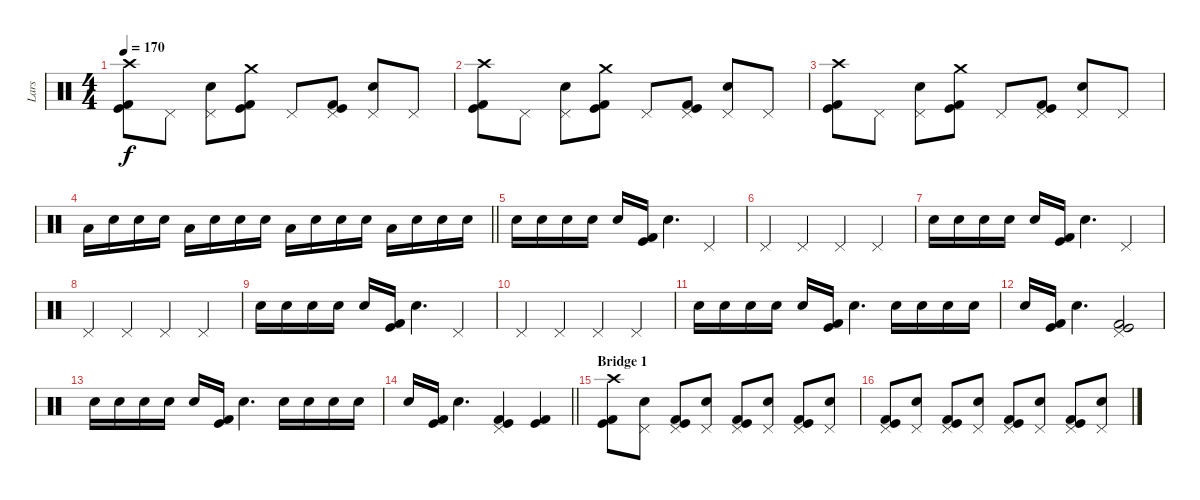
\track ("Lars" "Lars") {instrument percussion}
\staff {score}
\articulation defaults
\ts (4 4)
\tempo 170
\clef neutral
\ks c
("Crash high (hit)" "Kick (hit)" "Kick (hit) 2").8{dy f} "Pedal Hi-Hat (hit)".8 ("Pedal Hi-Hat (hit)" "Electric Snare (hit)").8 ("Crash medium (hit)" "Kick (hit)" "Kick (hit) 2").8 "Pedal Hi-Hat (hit)".8 ("Pedal Hi-Hat (hit)" "Kick (hit)" "Kick (hit) 2").8 ("Pedal Hi-Hat (hit)" "Electric Snare (hit)").8 "Pedal Hi-Hat (hit)".8 |
("Crash high (hit)" "Kick (hit)" "Kick (hit) 2").8 "Pedal Hi-Hat (hit)".8 ("Pedal Hi-Hat (hit)" "Electric Snare (hit)").8 ("Crash medium (hit)" "Kick (hit)" "Kick (hit) 2").8 "Pedal Hi-Hat (hit)".8 ("Pedal Hi-Hat (hit)" "Kick (hit)" "Kick (hit) 2").8 ("Pedal Hi-Hat (hit)" "Electric Snare (hit)").8 "Pedal Hi-Hat (hit)".8 |
("Crash high (hit)" "Kick (hit)" "Kick (hit) 2").8 "Pedal Hi-Hat (hit)".8 ("Pedal Hi-Hat (hit)" "Electric Snare (hit)").8 ("Crash medium (hit)" "Kick (hit)" "Kick (hit) 2").8 "Pedal Hi-Hat (hit)".8 ("Pedal Hi-Hat (hit)" "Kick (hit)" "Kick (hit) 2").8 ("Pedal Hi-Hat (hit)" "Electric Snare (hit)").8 "Pedal Hi-Hat (hit)".8 |
\barLineRight lightlight "Low Tom (hit)".16 "Electric Snare (hit)".16 "Electric Snare (hit)".16 "Electric Snare (hit)".16 "Low Tom (hit)".16 "Electric Snare (hit)".16 "Electric Snare (hit)".16 "Electric Snare (hit)".16 "Low Tom (hit)".16 "Electric Snare (hit)".16 "Electric Snare (hit)".16 "Electric Snare (hit)".16 "Low Tom (hit)".16 "Electric Snare (hit)".16 "Electric Snare (hit)".16 "Electric Snare (hit)".16
|
\section ("" "")
"Electric Snare (hit)".16 "Electric Snare (hit)".16 "Electric Snare (hit)".16 "Electric Snare (hit)".16 "Electric Snare (hit)".16 ("Kick (hit)" "Kick (hit) 2").16 "Electric Snare (hit)".4{d} "Pedal Hi-Hat (hit)".4 |
"Pedal Hi-Hat (hit)".4 "Pedal Hi-Hat (hit)".4 "Pedal Hi-Hat (hit)".4 "Pedal Hi-Hat (hit)".4 |
"Electric Snare (hit)".16 "Electric Snare (hit)".16 "Electric Snare (hit)".16 "Electric Snare (hit)".16 "Electric Snare (hit)".16 ("Kick (hit)" "Kick (hit) 2").16 "Electric Snare (hit)".4{d} "Pedal Hi-Hat (hit)".4 |
"Pedal Hi-Hat (hit)".4 "Pedal Hi-Hat (hit)".4 "Pedal Hi-Hat (hit)".4 "Pedal Hi-Hat (hit)".4 |
"Electric Snare (hit)".16 "Electric Snare (hit)".16 "Electric Snare (hit)".16 "Electric Snare (hit)".16 "Electric Snare (hit)".16 ("Kick (hit)" "Kick (hit) 2").16 "Electric Snare (hit)".4{d} "Pedal Hi-Hat (hit)".4 |
"Pedal Hi-Hat (hit)".4 "Pedal Hi-Hat (hit)".4 "Pedal Hi-Hat (hit)".4 "Pedal Hi-Hat (hit)".4 |
"Electric Snare (hit)".16 "Electric Snare (hit)".16 "Electric Snare (hit)".16 "Electric Snare (hit)".16 "Electric Snare (hit)".16 ("Kick (hit)" "Kick (hit) 2").16 "Electric Snare (hit)".4{d} "Electric Snare (hit)".16 "Electric Snare (hit)".16 "Electric Snare (hit)".16 "Electric Snare (hit)".16 |
"Electric Snare (hit)".16 ("Kick (hit)" "Kick (hit) 2").16 "Electric Snare (hit)".4{d} ("Pedal Hi-Hat (hit)" "Kick (hit)" "Kick (hit) 2").2 |
"Electric Snare (hit)".16 "Electric Snare (hit)".16 "Electric Snare (hit)".16 "Electric Snare (hit)".16 "Electric Snare (hit)".16 ("Kick (hit)" "Kick (hit) 2").16 "Electric Snare (hit)".4{d} "Electric Snare (hit)".16 "Electric Snare (hit)".16 "Electric Snare (hit)".16 "Electric Snare (hit)".16 |
\barLineRight lightlight "Electric Snare (hit)".16
("Kick (hit)" "Kick (hit) 2").16 "Electric Snare (hit)".4{d} ("Pedal Hi-Hat (hit)" "Kick (hit)" "Kick (hit) 2").4 ("Kick (hit)" "Kick (hit) 2").4 |
\section ("" "Bridge 1")
("Crash high (hit)" "Kick (hit)" "Kick (hit) 2").8 ("Pedal Hi-Hat (hit)" "Electric Snare (hit)").8 ("Pedal Hi-Hat (hit)" "Kick (hit)" "Kick (hit) 2").8 ("Pedal Hi-Hat (hit)" "Electric Snare (hit)").8 ("Pedal Hi-Hat (hit)" "Kick (hit)" "Kick (hit) 2").8 ("Pedal Hi-Hat (hit)" "Electric Snare (hit)").8 ("Pedal Hi-Hat (hit)" "Kick (hit)" "Kick (hit) 2").8 ("Pedal Hi-Hat (hit)" "Electric Snare (hit)").8 |
("Pedal Hi-Hat (hit)" "Kick (hit)" "Kick (hit) 2").8 ("Pedal Hi-Hat (hit)" "Electric Snare (hit)").8 ("Pedal Hi-Hat (hit)" "Kick (hit)" "Kick (hit) 2").8 ("Pedal Hi-Hat (hit)" "Electric Snare (hit)").8 ("Pedal Hi-Hat (hit)" "Kick (hit)" "Kick (hit) 2").8 ("Pedal Hi-Hat (hit)" "Electric Snare (hit)").8 ("Pedal Hi-Hat (hit)" "Kick (hit)" "Kick (hit) 2").8 ("Pedal Hi-Hat (hit)" "Electric Snare (hit)").8
